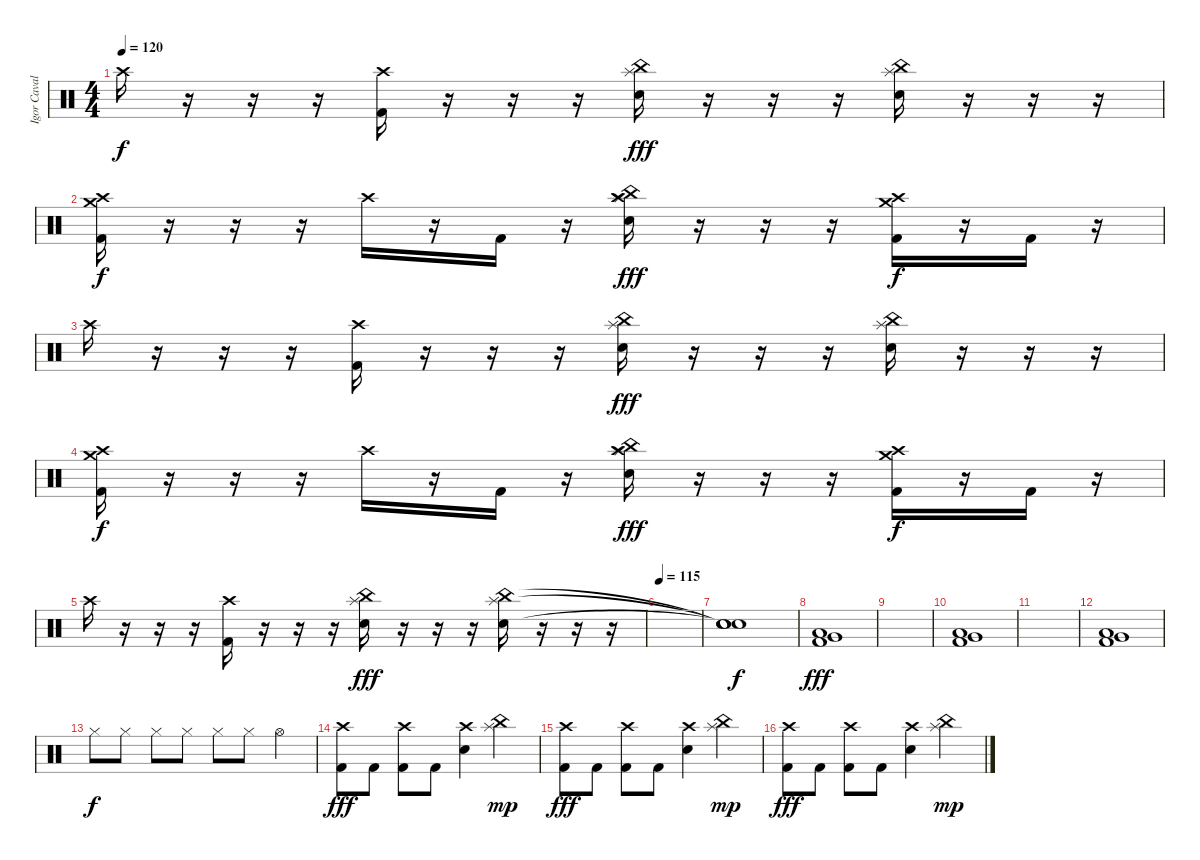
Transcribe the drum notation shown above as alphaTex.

\track ("Igor Cavalera" "Igor Caval") {instrument percussion}
\staff {score}
\articulation defaults
\ts (4 4)
\tempo 120
\clef neutral
\ks c "Crash high (hit)".16{dy f}
r.16 r.16 r.16 ("Kick (hit) 2" "Crash high (hit)").16 r.16 r.16 r.16 ("China (hit)" "Splash (hit)" "Electric Snare (hit)").16{dy fff} r.16 r.16 r.16 ("China (hit)" "Splash (hit)" "Electric Snare (hit)").16 r.16 r.16 r.16 |
("Crash medium (hit)" "Crash high (hit)" "Kick (hit) 2").16{dy f} r.16 r.16 r.16 "Crash high (hit)".16 r.16 "Kick (hit) 2".16 r.16 ("China (hit)" "Splash (hit)" "Crash high (hit)" "Electric Snare (hit)").16{dy fff} r.16 r.16 r.16 ("Crash medium (hit)" "Kick (hit) 2" "Crash high (hit)").16{dy f} r.16 "Kick (hit) 2".16 r.16 |
"Crash high (hit)".16 r.16 r.16 r.16 ("Kick (hit) 2" "Crash high (hit)").16 r.16 r.16 r.16 ("China (hit)" "Splash (hit)" "Electric Snare (hit)").16{dy fff} r.16 r.16 r.16 ("China (hit)" "Splash (hit)" "Electric Snare (hit)").16 r.16 r.16 r.16 |
("Crash medium (hit)" "Crash high (hit)" "Kick (hit) 2").16{dy f} r.16 r.16 r.16 "Crash high (hit)".16 r.16 "Kick (hit) 2".16 r.16 ("China (hit)" "Splash (hit)" "Crash high (hit)" "Electric Snare (hit)").16{dy fff} r.16 r.16 r.16 ("Crash medium (hit)" "Kick (hit) 2" "Crash high (hit)").16{dy f} r.16 "Kick (hit) 2".16 r.16 |
"Crash high (hit)".16 r.16 r.16 r.16 ("Kick (hit) 2" "Crash high (hit)").16 r.16 r.16 r.16 ("China (hit)" "Splash (hit)" "Electric Snare (hit)").16{dy fff} r.16 r.16 r.16 ("China (hit)" "Splash (hit)" "Electric Snare (hit)").16 r.16 r.16 r.16 |
\tempo 115
|
("Snare (hit)"{t} "Snare (hit)"{t} "Snare (hit)"{t}).1{dy f} |
("Low Floor Tom (hit)" "Very Low Tom (hit)" "Kick (hit) 2").1{dy fff} |
|
("Low Floor Tom (hit)" "Very Low Tom (hit)" "Kick (hit) 2").1 |
|
("Low Floor Tom (hit)" "Very Low Tom (hit)" "Kick (hit) 2").1 |
"Hi-Hat (closed)".8{dy f} "Hi-Hat (closed)".8 "Hi-Hat (closed)".8 "Hi-Hat (closed)".8 "Hi-Hat (closed)".8 "Hi-Hat (closed)".8 "Hi-Hat (open)".4 |
("Crash high (hit)" "Kick (hit) 2").8{dy fff} "Kick (hit) 2".8 ("Crash high (hit)" "Kick (hit) 2").8 "Kick (hit) 2".8 ("Crash high (hit)" "Electric Snare (hit)").4 ("Splash (hit)" "China (hit)").4{dy mp} |
("Crash high (hit)" "Kick (hit) 2").8{dy fff} "Kick (hit) 2".8 ("Crash high (hit)" "Kick (hit) 2").8 "Kick (hit) 2".8 ("Crash high (hit)" "Electric Snare (hit)").4 ("Splash (hit)" "China (hit)").4{dy mp} |
("Crash high (hit)" "Kick (hit) 2").8{dy fff} "Kick (hit) 2".8 ("Crash high (hit)" "Kick (hit) 2").8 "Kick (hit) 2".8 ("Crash high (hit)" "Electric Snare (hit)").4 ("Splash (hit)" "China (hit)").4{dy mp}
